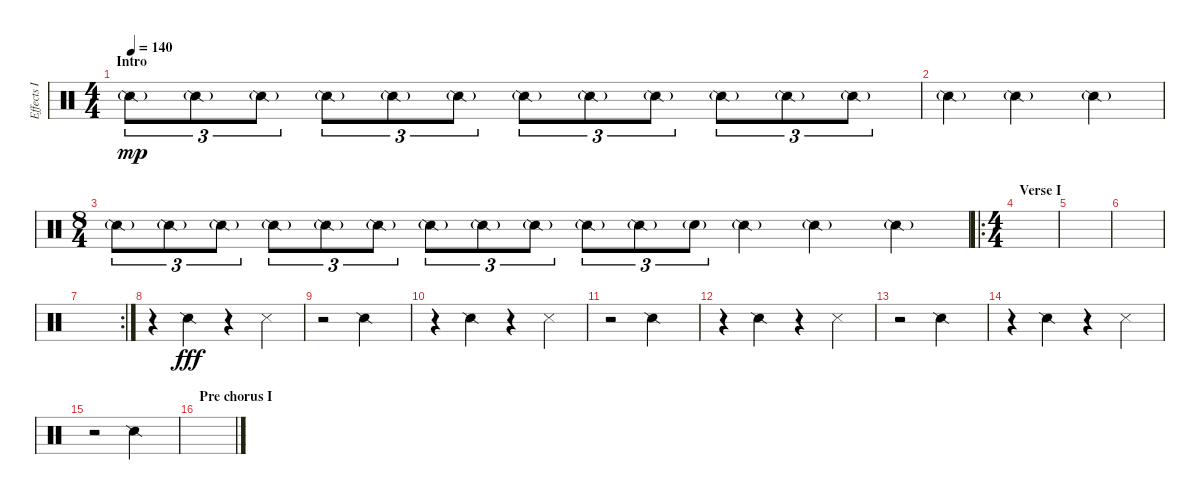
\track ("Effects I" "Effects I") {instrument percussion}
\staff {score}
\articulation defaults
\ts (4 4)
\section ("" "Intro")
\tempo 140
\clef neutral
\ks c "Snare (side stick) 2"{g}.8{tu (3 2) dy mp} "Snare (side stick) 2"{g}.8{tu (3 2)} "Snare (side stick) 2"{g}.8{tu (3 2)} "Snare (side stick) 2"{g}.8{tu (3 2)} "Snare (side stick) 2"{g}.8{tu (3 2)} "Snare (side stick) 2"{g}.8{tu (3 2)} "Snare (side stick) 2"{g}.8{tu (3 2)} "Snare (side stick) 2"{g}.8{tu (3 2)} "Snare (side stick) 2"{g}.8{tu (3 2)} "Snare (side stick) 2"{g}.8{tu (3 2)} "Snare (side stick) 2"{g}.8{tu (3 2)} "Snare (side stick) 2"{g}.8{tu (3 2)}
|
"Snare (side stick) 2"{g}.4 "Snare (side stick) 2"{g}.2 "Snare (side stick) 2"{g}.4 |
\ts (8 4)
"Snare (side stick) 2"{g}.8{tu (3 2)} "Snare (side stick) 2"{g}.8{tu (3 2)} "Snare (side stick) 2"{g}.8{tu (3 2)} "Snare (side stick) 2"{g}.8{tu (3 2)} "Snare (side stick) 2"{g}.8{tu (3 2)} "Snare (side stick) 2"{g}.8{tu (3 2)} "Snare (side stick) 2"{g}.8{tu (3 2)} "Snare (side stick) 2"{g}.8{tu (3 2)} "Snare (side stick) 2"{g}.8{tu (3 2)} "Snare (side stick) 2"{g}.8{tu (3 2)} "Snare (side stick) 2"{g}.8{tu (3 2)} "Snare (hit)"{g}.8{tu (3 2)} "Snare (side stick) 2"{g}.4 "Snare (side stick) 2"{g}.2 "Snare (side stick) 2"{g}.4 |
\ro
\ts (4 4)
\section ("" "Verse I")
|
|
|
\rc 2
|
r.4 "Snare (side stick) 2".4{dy fff} r.4 "Snare (side stick) 3".4 |
r.2 "Snare (side stick) 2".2 |
r.4 "Snare (side stick) 2".4 r.4 "Snare (side stick) 3".4 |
r.2 "Snare (side stick) 2".2 |
r.4 "Snare (side stick) 2".4 r.4 "Snare (side stick) 3".4 |
r.2 "Snare (side stick) 2".2 |
r.4 "Snare (side stick) 2".4 r.4 "Snare (side stick) 3".4 |
r.2 "Snare (side stick) 2".2 |
\section ("" "Pre chorus I")
